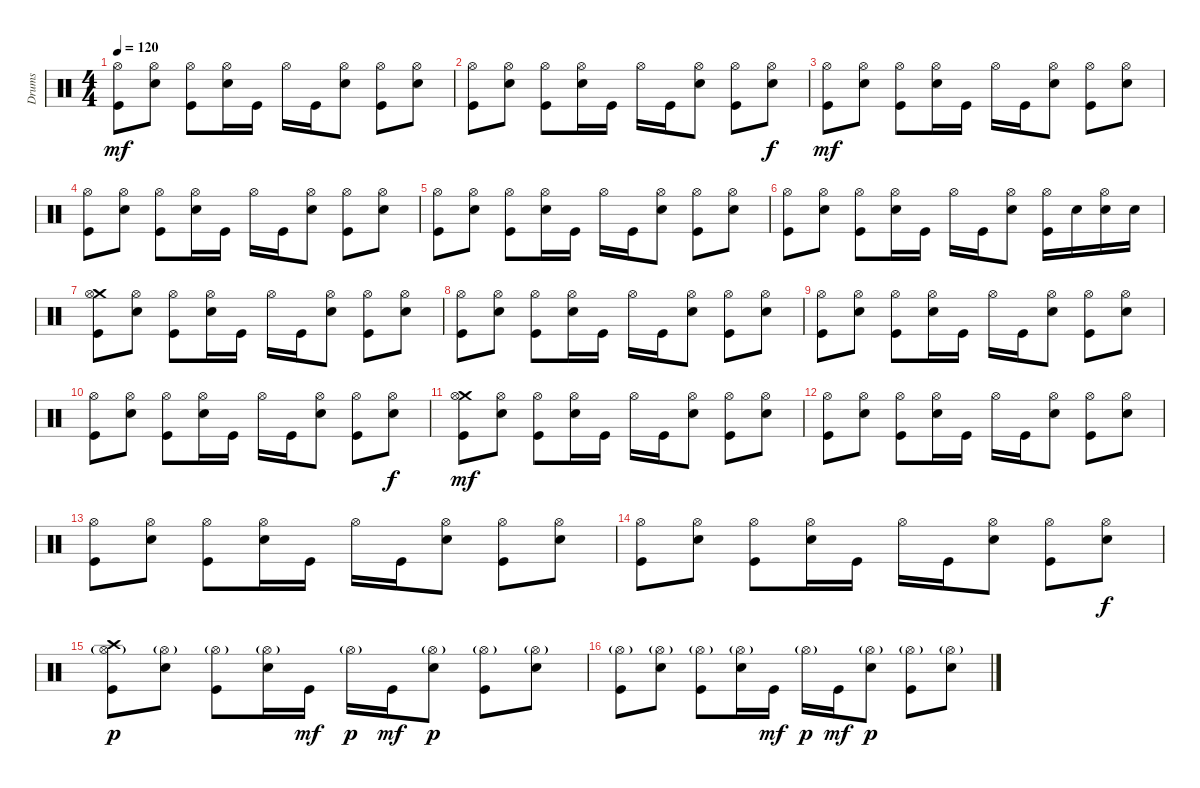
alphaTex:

\track ("Drums" "Drums") {instrument percussion}
\staff {score}
\articulation defaults
\ts (4 4)
\tempo 120
\clef neutral
\ks c
("Kick (hit)" "Hi-Hat (open)").8{dy mf} ("Electric Snare (hit)" "Hi-Hat (open)").8 ("Kick (hit)" "Hi-Hat (open)").8 ("Electric Snare (hit)" "Hi-Hat (open)").16 "Kick (hit)".16 "Hi-Hat (open)".16 "Kick (hit)".16 ("Electric Snare (hit)" "Hi-Hat (open)").8 ("Kick (hit)" "Hi-Hat (open)").8 ("Electric Snare (hit)" "Hi-Hat (open)").8 |
("Kick (hit)" "Hi-Hat (open)").8 ("Electric Snare (hit)" "Hi-Hat (open)").8 ("Kick (hit)" "Hi-Hat (open)").8 ("Electric Snare (hit)" "Hi-Hat (open)").16 "Kick (hit)".16 "Hi-Hat (open)".16 "Kick (hit)".16 ("Electric Snare (hit)" "Hi-Hat (open)").8 ("Kick (hit)" "Hi-Hat (open)").8 ("Electric Snare (hit)" "Hi-Hat (open)").8{dy f} |
("Kick (hit)" "Hi-Hat (open)").8{dy mf} ("Electric Snare (hit)" "Hi-Hat (open)").8 ("Kick (hit)" "Hi-Hat (open)").8 ("Electric Snare (hit)" "Hi-Hat (open)").16 "Kick (hit)".16 "Hi-Hat (open)".16 "Kick (hit)".16 ("Electric Snare (hit)" "Hi-Hat (open)").8 ("Kick (hit)" "Hi-Hat (open)").8 ("Electric Snare (hit)" "Hi-Hat (open)").8 |
("Kick (hit)" "Hi-Hat (open)").8 ("Electric Snare (hit)" "Hi-Hat (open)").8 ("Kick (hit)" "Hi-Hat (open)").8 ("Electric Snare (hit)" "Hi-Hat (open)").16 "Kick (hit)".16 "Hi-Hat (open)".16 "Kick (hit)".16 ("Electric Snare (hit)" "Hi-Hat (open)").8 ("Kick (hit)" "Hi-Hat (open)").8 ("Electric Snare (hit)" "Hi-Hat (open)").8 |
("Kick (hit)" "Hi-Hat (open)").8 ("Electric Snare (hit)" "Hi-Hat (open)").8 ("Kick (hit)" "Hi-Hat (open)").8 ("Electric Snare (hit)" "Hi-Hat (open)").16 "Kick (hit)".16 "Hi-Hat (open)".16 "Kick (hit)".16 ("Electric Snare (hit)" "Hi-Hat (open)").8 ("Kick (hit)" "Hi-Hat (open)").8 ("Electric Snare (hit)" "Hi-Hat (open)").8 |
("Kick (hit)" "Hi-Hat (open)").8 ("Electric Snare (hit)" "Hi-Hat (open)").8 ("Kick (hit)" "Hi-Hat (open)").8 ("Electric Snare (hit)" "Hi-Hat (open)").16 "Kick (hit)".16 "Hi-Hat (open)".16 "Kick (hit)".16 ("Electric Snare (hit)" "Hi-Hat (open)").8 ("Kick (hit)" "Hi-Hat (open)").16 "Electric Snare (hit)".16 ("Electric Snare (hit)" "Hi-Hat (open)").16 "Electric Snare (hit)".16 |
("Kick (hit)" "Crash medium (hit)" "Hi-Hat (open)").8 ("Electric Snare (hit)" "Hi-Hat (open)").8 ("Kick (hit)" "Hi-Hat (open)").8 ("Electric Snare (hit)" "Hi-Hat (open)").16 "Kick (hit)".16 "Hi-Hat (open)".16 "Kick (hit)".16 ("Electric Snare (hit)" "Hi-Hat (open)").8 ("Kick (hit)" "Hi-Hat (open)").8 ("Electric Snare (hit)" "Hi-Hat (open)").8 |
("Kick (hit)" "Hi-Hat (open)").8 ("Electric Snare (hit)" "Hi-Hat (open)").8 ("Kick (hit)" "Hi-Hat (open)").8 ("Electric Snare (hit)" "Hi-Hat (open)").16 "Kick (hit)".16 "Hi-Hat (open)".16 "Kick (hit)".16 ("Electric Snare (hit)" "Hi-Hat (open)").8 ("Kick (hit)" "Hi-Hat (open)").8 ("Electric Snare (hit)" "Hi-Hat (open)").8 |
("Kick (hit)" "Hi-Hat (open)").8 ("Electric Snare (hit)" "Hi-Hat (open)").8 ("Kick (hit)" "Hi-Hat (open)").8 ("Electric Snare (hit)" "Hi-Hat (open)").16 "Kick (hit)".16 "Hi-Hat (open)".16 "Kick (hit)".16 ("Electric Snare (hit)" "Hi-Hat (open)").8 ("Kick (hit)" "Hi-Hat (open)").8 ("Electric Snare (hit)" "Hi-Hat (open)").8 |
("Kick (hit)" "Hi-Hat (open)").8 ("Electric Snare (hit)" "Hi-Hat (open)").8 ("Kick (hit)" "Hi-Hat (open)").8 ("Electric Snare (hit)" "Hi-Hat (open)").16 "Kick (hit)".16 "Hi-Hat (open)".16 "Kick (hit)".16 ("Electric Snare (hit)" "Hi-Hat (open)").8 ("Kick (hit)" "Hi-Hat (open)").8 ("Electric Snare (hit)" "Hi-Hat (open)").8{dy f} |
("Kick (hit)" "Crash medium (hit)" "Hi-Hat (open)").8{dy mf} ("Electric Snare (hit)" "Hi-Hat (open)").8 ("Kick (hit)" "Hi-Hat (open)").8 ("Electric Snare (hit)" "Hi-Hat (open)").16 "Kick (hit)".16 "Hi-Hat (open)".16 "Kick (hit)".16 ("Electric Snare (hit)" "Hi-Hat (open)").8 ("Kick (hit)" "Hi-Hat (open)").8 ("Electric Snare (hit)" "Hi-Hat (open)").8 |
("Kick (hit)" "Hi-Hat (open)").8 ("Electric Snare (hit)" "Hi-Hat (open)").8 ("Kick (hit)" "Hi-Hat (open)").8 ("Electric Snare (hit)" "Hi-Hat (open)").16 "Kick (hit)".16 "Hi-Hat (open)".16 "Kick (hit)".16 ("Electric Snare (hit)" "Hi-Hat (open)").8 ("Kick (hit)" "Hi-Hat (open)").8 ("Electric Snare (hit)" "Hi-Hat (open)").8 |
("Kick (hit)" "Hi-Hat (open)").8 ("Electric Snare (hit)" "Hi-Hat (open)").8 ("Kick (hit)" "Hi-Hat (open)").8 ("Electric Snare (hit)" "Hi-Hat (open)").16 "Kick (hit)".16 "Hi-Hat (open)".16 "Kick (hit)".16 ("Electric Snare (hit)" "Hi-Hat (open)").8 ("Kick (hit)" "Hi-Hat (open)").8 ("Electric Snare (hit)" "Hi-Hat (open)").8 |
("Kick (hit)" "Hi-Hat (open)").8 ("Electric Snare (hit)" "Hi-Hat (open)").8 ("Kick (hit)" "Hi-Hat (open)").8 ("Electric Snare (hit)" "Hi-Hat (open)").16 "Kick (hit)".16 "Hi-Hat (open)".16 "Kick (hit)".16 ("Electric Snare (hit)" "Hi-Hat (open)").8 ("Kick (hit)" "Hi-Hat (open)").8 ("Electric Snare (hit)" "Hi-Hat (open)").8{dy f} |
("Kick (hit)" "Crash high (hit)" "Hi-Hat (open)"{g}).8{dy p} ("Electric Snare (hit)" "Hi-Hat (open)"{g}).8 ("Kick (hit)" "Hi-Hat (open)"{g}).8 ("Electric Snare (hit)" "Hi-Hat (open)"{g}).16 "Kick (hit)".16{dy mf} "Hi-Hat (open)"{g}.16{dy p} "Kick (hit)".16{dy mf} ("Electric Snare (hit)" "Hi-Hat (open)"{g}).8{dy p} ("Kick (hit)" "Hi-Hat (open)"{g}).8 ("Electric Snare (hit)" "Hi-Hat (open)"{g}).8 |
("Kick (hit)" "Hi-Hat (open)"{g}).8 ("Electric Snare (hit)" "Hi-Hat (open)"{g}).8 ("Kick (hit)" "Hi-Hat (open)"{g}).8 ("Electric Snare (hit)" "Hi-Hat (open)"{g}).16 "Kick (hit)".16{dy mf} "Hi-Hat (open)"{g}.16{dy p} "Kick (hit)".16{dy mf} ("Electric Snare (hit)" "Hi-Hat (open)"{g}).8{dy p} ("Kick (hit)" "Hi-Hat (open)"{g}).8 ("Electric Snare (hit)" "Hi-Hat (open)"{g}).8
